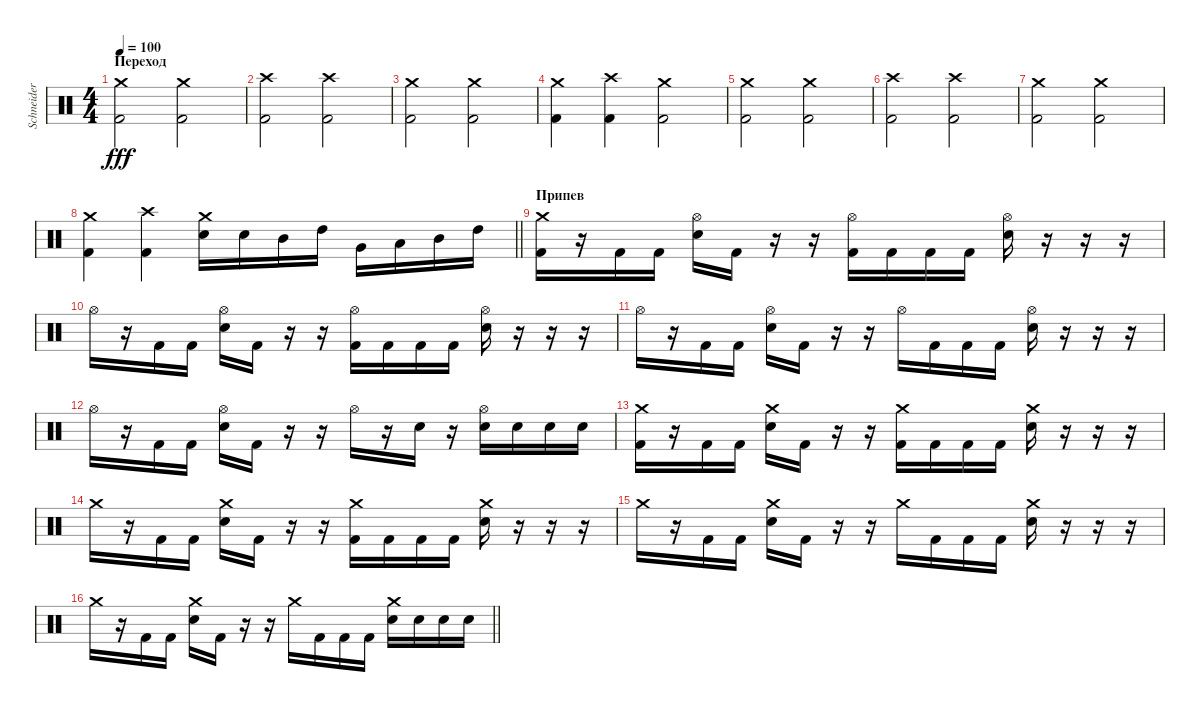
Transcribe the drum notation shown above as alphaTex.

\track ("Schneider" "Schneider") {instrument percussion}
\staff {score}
\articulation defaults
\ts (4 4)
\section ("" "Переход")
\tempo 100
\clef neutral
\ks c
("Crash medium (hit)" "Kick (hit) 2").2{dy fff} ("Crash medium (hit)" "Kick (hit) 2").2 |
("Crash high (hit)" "Kick (hit) 2").2 ("Crash high (hit)" "Kick (hit) 2").2 |
("Crash medium (hit)" "Kick (hit) 2").2 ("Crash medium (hit)" "Kick (hit) 2").2 |
("Kick (hit) 2" "Crash medium (hit)").4 ("Kick (hit) 2" "Crash high (hit)").4 ("Kick (hit) 2" "Crash medium (hit)").2 |
("Crash medium (hit)" "Kick (hit) 2").2 ("Crash medium (hit)" "Kick (hit) 2").2 |
("Crash high (hit)" "Kick (hit) 2").2 ("Crash high (hit)" "Kick (hit) 2").2 |
("Crash medium (hit)" "Kick (hit) 2").2 ("Crash medium (hit)" "Kick (hit) 2").2 |
\barLineRight lightlight
("Kick (hit) 2" "Crash medium (hit)").4 ("Kick (hit) 2" "Crash high (hit)").4 ("Electric Snare (hit)" "Crash medium (hit)").16 "Electric Snare (hit)".16 "Mid Tom (hit)".16 "High Tom (hit)".16 "Very Low Tom (hit)".16 "Low Tom (hit)".16 "Mid Tom (hit)".16 "High Tom (hit)".16 |
\section ("" "Припев")
("Crash medium (hit)" "Kick (hit) 2").16 r.16 "Kick (hit) 2".16 "Kick (hit) 2".16 ("Hi-Hat (open)" "Electric Snare (hit)").16 "Kick (hit) 2".16 r.16 r.16 ("Hi-Hat (open)" "Kick (hit) 2").16 "Kick (hit) 2".16 "Kick (hit) 2".16 "Kick (hit) 2".16 ("Hi-Hat (open)" "Electric Snare (hit)").16 r.16 r.16 r.16 |
"Hi-Hat (open)".16 r.16 "Kick (hit) 2".16 "Kick (hit) 2".16 ("Hi-Hat (open)" "Electric Snare (hit)").16 "Kick (hit) 2".16 r.16 r.16 ("Hi-Hat (open)" "Kick (hit) 2").16 "Kick (hit) 2".16 "Kick (hit) 2".16 "Kick (hit) 2".16 ("Hi-Hat (open)" "Electric Snare (hit)").16 r.16 r.16 r.16 |
"Hi-Hat (open)".16 r.16 "Kick (hit) 2".16 "Kick (hit) 2".16 ("Hi-Hat (open)" "Electric Snare (hit)").16 "Kick (hit) 2".16 r.16 r.16 "Hi-Hat (open)".16 "Kick (hit) 2".16 "Kick (hit) 2".16 "Kick (hit) 2".16 ("Hi-Hat (open)" "Electric Snare (hit)").16 r.16 r.16 r.16 |
"Hi-Hat (open)".16 r.16 "Kick (hit) 2".16 "Kick (hit) 2".16 ("Hi-Hat (open)" "Electric Snare (hit)").16 "Kick (hit) 2".16 r.16 r.16 "Hi-Hat (open)".16 r.16 "Electric Snare (hit)".16 r.16 ("Hi-Hat (open)" "Electric Snare (hit)").16 "Electric Snare (hit)".16 "Electric Snare (hit)".16 "Electric Snare (hit)".16 |
("Crash medium (hit)" "Kick (hit) 2").16 r.16 "Kick (hit) 2".16 "Kick (hit) 2".16 ("Crash medium (hit)" "Electric Snare (hit)").16 "Kick (hit) 2".16 r.16 r.16 ("Crash medium (hit)" "Kick (hit) 2").16 "Kick (hit) 2".16 "Kick (hit) 2".16 "Kick (hit) 2".16 ("Crash medium (hit)" "Electric Snare (hit)").16 r.16 r.16 r.16 |
"Crash medium (hit)".16 r.16 "Kick (hit) 2".16 "Kick (hit) 2".16 ("Crash medium (hit)" "Electric Snare (hit)").16 "Kick (hit) 2".16 r.16 r.16 ("Crash medium (hit)" "Kick (hit) 2").16 "Kick (hit) 2".16 "Kick (hit) 2".16 "Kick (hit) 2".16 ("Crash medium (hit)" "Electric Snare (hit)").16 r.16 r.16 r.16 |
"Crash medium (hit)".16 r.16 "Kick (hit) 2".16 "Kick (hit) 2".16 ("Crash medium (hit)" "Electric Snare (hit)").16 "Kick (hit) 2".16 r.16 r.16 "Crash medium (hit)".16 "Kick (hit) 2".16 "Kick (hit) 2".16 "Kick (hit) 2".16 ("Crash medium (hit)" "Electric Snare (hit)").16 r.16 r.16 r.16 |
\barLineRight lightlight "Crash medium (hit)".16
r.16 "Kick (hit) 2".16 "Kick (hit) 2".16 ("Crash medium (hit)" "Electric Snare (hit)").16 "Kick (hit) 2".16 r.16 r.16 "Crash medium (hit)".16 "Kick (hit) 2".16 "Kick (hit) 2".16 "Kick (hit) 2".16 ("Crash medium (hit)" "Electric Snare (hit)").16 "Electric Snare (hit)".16 "Electric Snare (hit)".16 "Electric Snare (hit)".16
